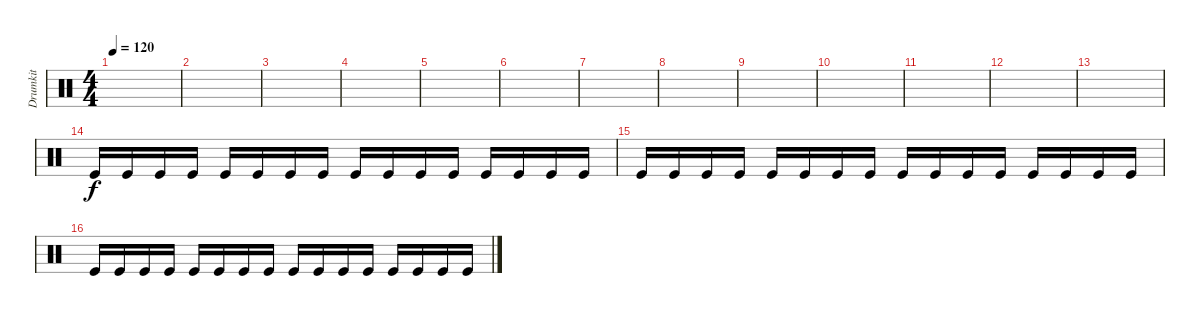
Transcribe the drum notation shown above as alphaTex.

\track ("Drumkit" "Drumkit") {instrument percussion}
\staff {score}
\articulation defaults
\ts (4 4)
\tempo 120
\clef neutral
\ks c
|
|
|
|
|
|
|
|
|
|
|
|
|
"Kick (hit)".16{dy f} "Kick (hit)".16 "Kick (hit)".16 "Kick (hit)".16 "Kick (hit)".16 "Kick (hit)".16 "Kick (hit)".16 "Kick (hit)".16 "Kick (hit)".16 "Kick (hit)".16 "Kick (hit)".16 "Kick (hit)".16 "Kick (hit)".16 "Kick (hit)".16 "Kick (hit)".16 "Kick (hit)".16 |
"Kick (hit)".16 "Kick (hit)".16 "Kick (hit)".16 "Kick (hit)".16 "Kick (hit)".16 "Kick (hit)".16 "Kick (hit)".16 "Kick (hit)".16 "Kick (hit)".16 "Kick (hit)".16 "Kick (hit)".16 "Kick (hit)".16 "Kick (hit)".16 "Kick (hit)".16 "Kick (hit)".16 "Kick (hit)".16 |
"Kick (hit)".16 "Kick (hit)".16 "Kick (hit)".16 "Kick (hit)".16 "Kick (hit)".16 "Kick (hit)".16 "Kick (hit)".16 "Kick (hit)".16 "Kick (hit)".16 "Kick (hit)".16 "Kick (hit)".16 "Kick (hit)".16 "Kick (hit)".16 "Kick (hit)".16 "Kick (hit)".16 "Kick (hit)".16
